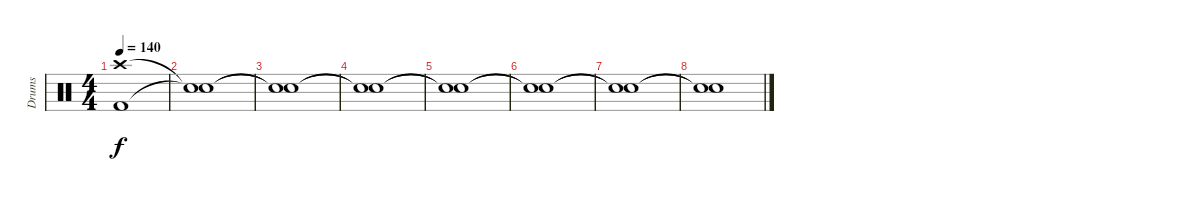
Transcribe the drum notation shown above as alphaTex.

\track ("Drums" "Drums") {instrument percussion}
\staff {score}
\articulation defaults
\ts (4 4)
\tempo 140
\clef neutral
\ks c
("Kick (hit) 2" "Crash high (hit)").1{dy f} |
("Snare (hit)"{t} "Snare (hit)"{t}).1 |
("Snare (hit)"{t} "Snare (hit)"{t}).1 |
("Snare (hit)"{t} "Snare (hit)"{t}).1 |
("Snare (hit)"{t} "Snare (hit)"{t}).1 |
("Snare (hit)"{t} "Snare (hit)"{t}).1 |
("Snare (hit)"{t} "Snare (hit)"{t}).1 |
("Snare (hit)"{t} "Snare (hit)"{t}).1
